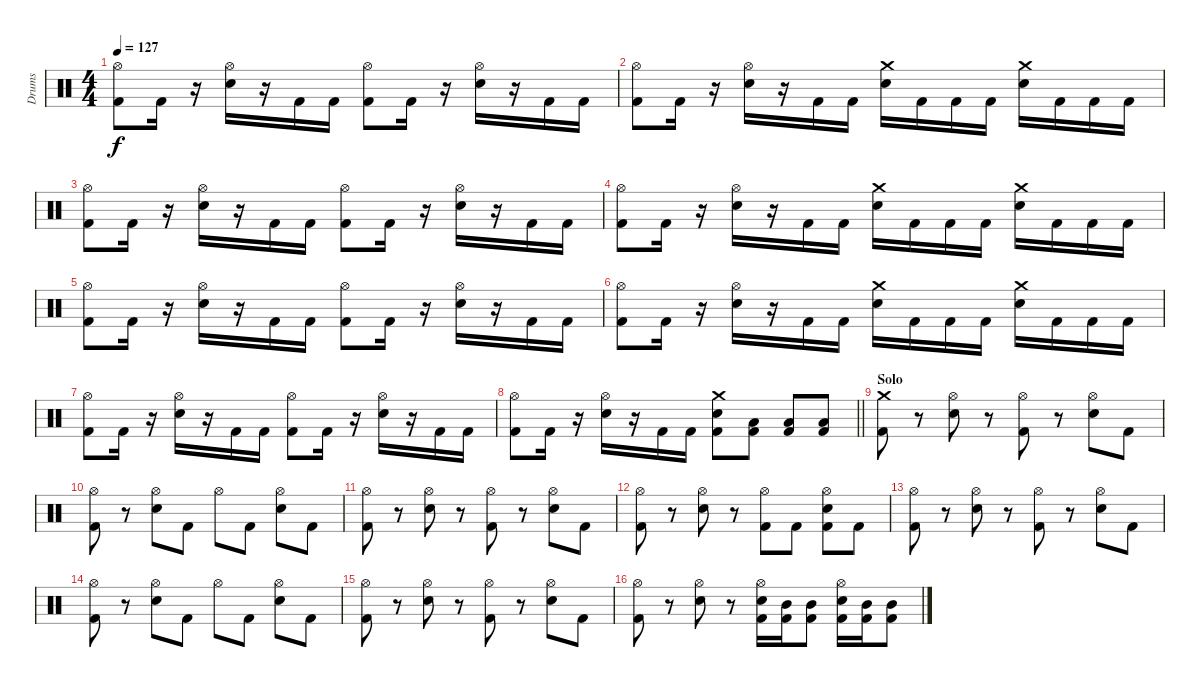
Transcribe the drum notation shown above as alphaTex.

\track ("Drums" "Drums") {instrument percussion}
\staff {score}
\articulation defaults
\ts (4 4)
\tempo 127
\clef neutral
\ks c
("Hi-Hat (open)" "Kick (hit) 2").8{dy f} "Kick (hit) 2".16 r.16 ("Hi-Hat (open)" "Electric Snare (hit)").16 r.16 "Kick (hit) 2".16 "Kick (hit) 2".16 ("Hi-Hat (open)" "Kick (hit) 2").8 "Kick (hit) 2".16 r.16 ("Hi-Hat (open)" "Electric Snare (hit)").16 r.16 "Kick (hit) 2".16 "Kick (hit) 2".16 |
("Hi-Hat (open)" "Kick (hit) 2").8 "Kick (hit) 2".16 r.16 ("Hi-Hat (open)" "Electric Snare (hit)").16 r.16 "Kick (hit) 2".16 "Kick (hit) 2".16 ("Crash medium (hit)" "Electric Snare (hit)").16 "Kick (hit) 2".16 "Kick (hit) 2".16 "Kick (hit) 2".16 ("Crash medium (hit)" "Electric Snare (hit)").16 "Kick (hit) 2".16 "Kick (hit) 2".16 "Kick (hit) 2".16 |
("Hi-Hat (open)" "Kick (hit) 2").8 "Kick (hit) 2".16 r.16 ("Hi-Hat (open)" "Electric Snare (hit)").16 r.16 "Kick (hit) 2".16 "Kick (hit) 2".16 ("Hi-Hat (open)" "Kick (hit) 2").8 "Kick (hit) 2".16 r.16 ("Hi-Hat (open)" "Electric Snare (hit)").16 r.16 "Kick (hit) 2".16 "Kick (hit) 2".16 |
("Hi-Hat (open)" "Kick (hit) 2").8 "Kick (hit) 2".16 r.16 ("Hi-Hat (open)" "Electric Snare (hit)").16 r.16 "Kick (hit) 2".16 "Kick (hit) 2".16 ("Crash medium (hit)" "Electric Snare (hit)").16 "Kick (hit) 2".16 "Kick (hit) 2".16 "Kick (hit) 2".16 ("Crash medium (hit)" "Electric Snare (hit)").16 "Kick (hit) 2".16 "Kick (hit) 2".16 "Kick (hit) 2".16 |
("Hi-Hat (open)" "Kick (hit) 2").8 "Kick (hit) 2".16 r.16 ("Hi-Hat (open)" "Electric Snare (hit)").16 r.16 "Kick (hit) 2".16 "Kick (hit) 2".16 ("Hi-Hat (open)" "Kick (hit) 2").8 "Kick (hit) 2".16 r.16 ("Hi-Hat (open)" "Electric Snare (hit)").16 r.16 "Kick (hit) 2".16 "Kick (hit) 2".16 |
("Hi-Hat (open)" "Kick (hit) 2").8 "Kick (hit) 2".16 r.16 ("Hi-Hat (open)" "Electric Snare (hit)").16 r.16 "Kick (hit) 2".16 "Kick (hit) 2".16 ("Crash medium (hit)" "Electric Snare (hit)").16 "Kick (hit) 2".16 "Kick (hit) 2".16 "Kick (hit) 2".16 ("Crash medium (hit)" "Electric Snare (hit)").16 "Kick (hit) 2".16 "Kick (hit) 2".16 "Kick (hit) 2".16 |
("Hi-Hat (open)" "Kick (hit) 2").8 "Kick (hit) 2".16 r.16 ("Hi-Hat (open)" "Electric Snare (hit)").16 r.16 "Kick (hit) 2".16 "Kick (hit) 2".16 ("Hi-Hat (open)" "Kick (hit) 2").8 "Kick (hit) 2".16 r.16 ("Hi-Hat (open)" "Electric Snare (hit)").16 r.16 "Kick (hit) 2".16 "Kick (hit) 2".16 |
\barLineRight lightlight
("Hi-Hat (open)" "Kick (hit) 2").8 "Kick (hit) 2".16 r.16 ("Hi-Hat (open)" "Electric Snare (hit)").16 r.16 "Kick (hit) 2".16 "Kick (hit) 2".16 ("Crash medium (hit)" "Electric Snare (hit)" "Kick (hit) 2").8 ("Low Tom (hit)" "Kick (hit) 2").8 ("Low Tom (hit)" "Kick (hit) 2").8 ("Low Tom (hit)" "Kick (hit) 2").8 |
\section ("" "Solo")
("Crash medium (hit)" "Kick (hit) 2").8 r.8 ("Hi-Hat (open)" "Electric Snare (hit)").8 r.8 ("Hi-Hat (open)" "Kick (hit) 2").8 r.8 ("Hi-Hat (open)" "Electric Snare (hit)").8 "Kick (hit) 2".8 |
("Hi-Hat (open)" "Kick (hit) 2").8 r.8 ("Hi-Hat (open)" "Electric Snare (hit)").8 "Kick (hit) 2".8 "Hi-Hat (open)".8 "Kick (hit) 2".8 ("Hi-Hat (open)" "Electric Snare (hit)").8 "Kick (hit) 2".8 |
("Hi-Hat (open)" "Kick (hit) 2").8 r.8 ("Hi-Hat (open)" "Electric Snare (hit)").8 r.8 ("Hi-Hat (open)" "Kick (hit) 2").8 r.8 ("Hi-Hat (open)" "Electric Snare (hit)").8 "Kick (hit) 2".8 |
("Hi-Hat (open)" "Kick (hit) 2").8 r.8 ("Hi-Hat (open)" "Electric Snare (hit)").8 r.8 ("Hi-Hat (open)" "Kick (hit) 2").8 "Kick (hit) 2".8 ("Hi-Hat (open)" "Electric Snare (hit)" "Kick (hit) 2").8 "Kick (hit) 2".8 |
("Hi-Hat (open)" "Kick (hit) 2").8 r.8 ("Hi-Hat (open)" "Electric Snare (hit)").8 r.8 ("Hi-Hat (open)" "Kick (hit) 2").8 r.8 ("Hi-Hat (open)" "Electric Snare (hit)").8 "Kick (hit) 2".8 |
("Hi-Hat (open)" "Kick (hit) 2").8 r.8 ("Hi-Hat (open)" "Electric Snare (hit)").8 "Kick (hit) 2".8 "Hi-Hat (open)".8 "Kick (hit) 2".8 ("Hi-Hat (open)" "Electric Snare (hit)").8 "Kick (hit) 2".8 |
("Hi-Hat (open)" "Kick (hit) 2").8 r.8 ("Hi-Hat (open)" "Electric Snare (hit)").8 r.8 ("Hi-Hat (open)" "Kick (hit) 2").8 r.8 ("Hi-Hat (open)" "Electric Snare (hit)").8 "Kick (hit) 2".8 |
("Hi-Hat (open)" "Kick (hit) 2").8 r.8 ("Hi-Hat (open)" "Electric Snare (hit)").8 r.8 ("Hi-Hat (open)" "Electric Snare (hit)" "Kick (hit) 2").16 ("Mid Tom (hit)" "Kick (hit) 2").16 ("Mid Tom (hit)" "Kick (hit) 2").8 ("Hi-Hat (open)" "Electric Snare (hit)" "Kick (hit) 2").16 ("Mid Tom (hit)" "Kick (hit) 2").16 ("Mid Tom (hit)" "Kick (hit) 2").8
